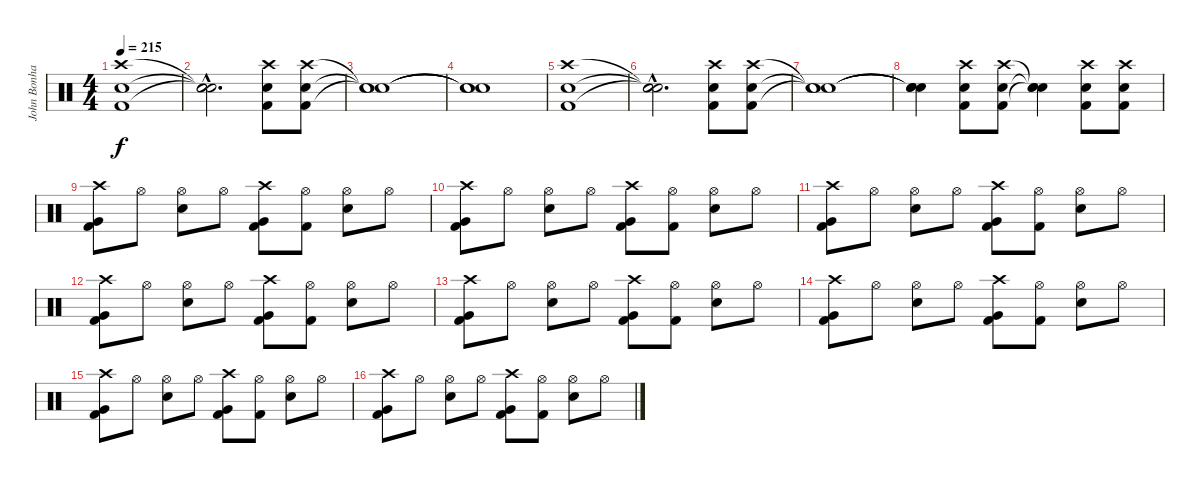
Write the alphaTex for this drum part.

\track ("John Bonham" "John Bonha") {instrument percussion}
\staff {score}
\articulation defaults
\ts (4 4)
\tempo 215
\clef neutral
\ks c
("Crash high (hit)" "Snare (hit) 2" "Kick (hit) 2").1{dy f} |
("Snare (hit)"{hac t} "Snare (hit)"{hac t} "Snare (hit)"{hac t}).2{d} ("Crash high (hit)" "Snare (hit) 2" "Kick (hit) 2").8 ("Crash high (hit)" "Snare (hit) 2" "Kick (hit) 2").8 |
("Snare (hit)"{t} "Snare (hit)"{t} "Snare (hit)"{t}).1 |
("Snare (hit)"{t} "Snare (hit)"{t} "Snare (hit)"{t}).1 |
("Crash high (hit)" "Snare (hit) 2" "Kick (hit) 2").1 |
("Snare (hit)"{hac t} "Snare (hit)"{hac t} "Snare (hit)"{hac t}).2{d} ("Crash high (hit)" "Snare (hit) 2" "Kick (hit) 2").8 ("Crash high (hit)" "Snare (hit) 2" "Kick (hit) 2").8 |
("Snare (hit)"{t} "Snare (hit)"{t} "Snare (hit)"{t}).1 |
("Snare (hit)"{t} "Snare (hit)"{t} "Snare (hit)"{t}).4 ("Crash high (hit)" "Snare (hit) 2" "Kick (hit) 2").8 ("Crash high (hit)" "Snare (hit) 2" "Kick (hit) 2").8 ("Snare (hit)"{t} "Snare (hit)"{t} "Snare (hit)"{t}).4 ("Crash high (hit)" "Snare (hit) 2" "Kick (hit) 2").8 ("Crash high (hit)" "Snare (hit) 2" "Kick (hit) 2").8 |
("Crash high (hit)" "Very Low Tom (hit)" "Kick (hit) 2").8 "Hi-Hat (open)".8 ("Hi-Hat (open)" "Snare (hit) 2").8 "Hi-Hat (open)".8 ("Crash high (hit)" "Very Low Tom (hit)" "Kick (hit) 2").8 ("Hi-Hat (open)" "Kick (hit) 2").8 ("Hi-Hat (open)" "Snare (hit) 2").8 "Hi-Hat (open)".8 |
("Crash high (hit)" "Very Low Tom (hit)" "Kick (hit) 2").8 "Hi-Hat (open)".8 ("Hi-Hat (open)" "Snare (hit) 2").8 "Hi-Hat (open)".8 ("Crash high (hit)" "Very Low Tom (hit)" "Kick (hit) 2").8 ("Hi-Hat (open)" "Kick (hit) 2").8 ("Hi-Hat (open)" "Snare (hit) 2").8 "Hi-Hat (open)".8 |
("Crash high (hit)" "Very Low Tom (hit)" "Kick (hit) 2").8 "Hi-Hat (open)".8 ("Hi-Hat (open)" "Snare (hit) 2").8 "Hi-Hat (open)".8 ("Crash high (hit)" "Very Low Tom (hit)" "Kick (hit) 2").8 ("Hi-Hat (open)" "Kick (hit) 2").8 ("Hi-Hat (open)" "Snare (hit) 2").8 "Hi-Hat (open)".8 |
("Crash high (hit)" "Very Low Tom (hit)" "Kick (hit) 2").8 "Hi-Hat (open)".8 ("Hi-Hat (open)" "Snare (hit) 2").8 "Hi-Hat (open)".8 ("Crash high (hit)" "Very Low Tom (hit)" "Kick (hit) 2").8 ("Hi-Hat (open)" "Kick (hit) 2").8 ("Hi-Hat (open)" "Snare (hit) 2").8 "Hi-Hat (open)".8 |
("Crash high (hit)" "Very Low Tom (hit)" "Kick (hit) 2").8 "Hi-Hat (open)".8 ("Hi-Hat (open)" "Snare (hit) 2").8 "Hi-Hat (open)".8 ("Crash high (hit)" "Very Low Tom (hit)" "Kick (hit) 2").8 ("Hi-Hat (open)" "Kick (hit) 2").8 ("Hi-Hat (open)" "Snare (hit) 2").8 "Hi-Hat (open)".8 |
("Crash high (hit)" "Very Low Tom (hit)" "Kick (hit) 2").8 "Hi-Hat (open)".8 ("Hi-Hat (open)" "Snare (hit) 2").8 "Hi-Hat (open)".8 ("Crash high (hit)" "Very Low Tom (hit)" "Kick (hit) 2").8 ("Hi-Hat (open)" "Kick (hit) 2").8 ("Hi-Hat (open)" "Snare (hit) 2").8 "Hi-Hat (open)".8 |
("Crash high (hit)" "Very Low Tom (hit)" "Kick (hit) 2").8 "Hi-Hat (open)".8 ("Hi-Hat (open)" "Snare (hit) 2").8 "Hi-Hat (open)".8 ("Crash high (hit)" "Very Low Tom (hit)" "Kick (hit) 2").8 ("Hi-Hat (open)" "Kick (hit) 2").8 ("Hi-Hat (open)" "Snare (hit) 2").8 "Hi-Hat (open)".8 |
("Crash high (hit)" "Very Low Tom (hit)" "Kick (hit) 2").8 "Hi-Hat (open)".8 ("Hi-Hat (open)" "Snare (hit) 2").8 "Hi-Hat (open)".8 ("Crash high (hit)" "Very Low Tom (hit)" "Kick (hit) 2").8 ("Hi-Hat (open)" "Kick (hit) 2").8 ("Hi-Hat (open)" "Snare (hit) 2").8 "Hi-Hat (open)".8
